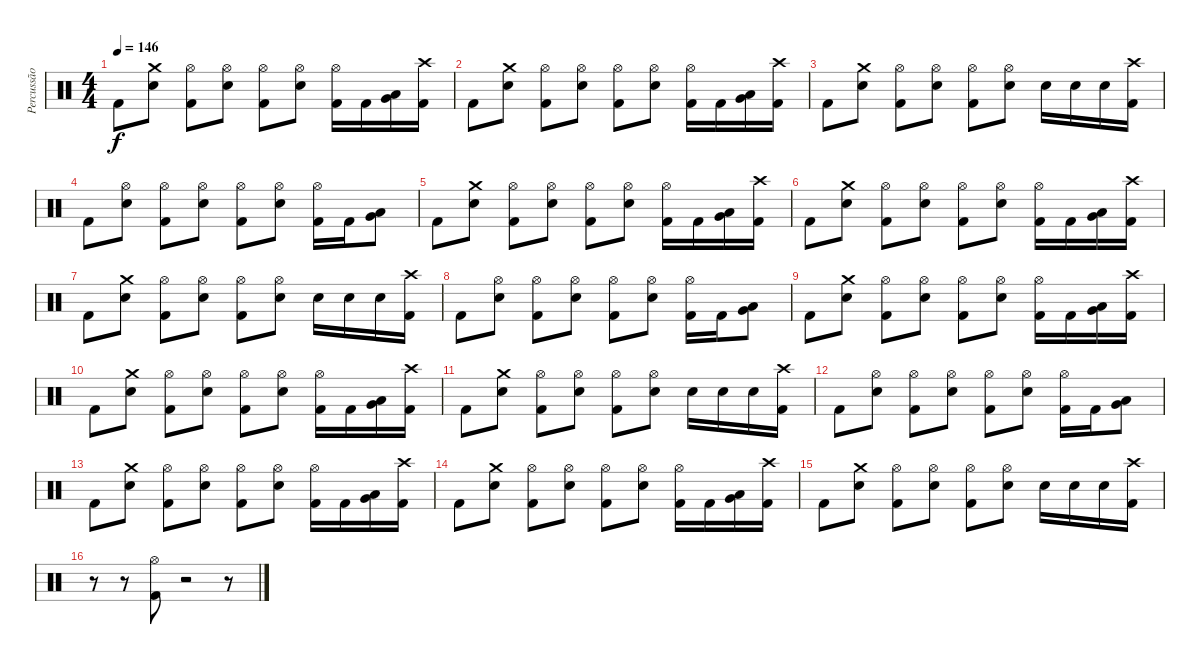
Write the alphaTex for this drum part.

\track ("Percussão" "Percussão") {instrument percussion}
\staff {score}
\articulation defaults
\ts (4 4)
\tempo 146
\clef neutral
\ks c "Kick (hit) 2".8{dy f}
("Crash medium (hit)" "Snare (hit) 2").8 ("Hi-Hat (open)" "Kick (hit) 2").8 ("Hi-Hat (open)" "Snare (hit) 2").8 ("Hi-Hat (open)" "Kick (hit) 2").8 ("Hi-Hat (open)" "Snare (hit) 2").8 ("Hi-Hat (open)" "Kick (hit) 2").16 "Kick (hit) 2".16 ("Very Low Tom (hit)" "Low Tom (hit)").16 ("Crash high (hit)" "Kick (hit) 2").16 |
"Kick (hit) 2".8 ("Crash medium (hit)" "Snare (hit) 2").8 ("Hi-Hat (open)" "Kick (hit) 2").8 ("Hi-Hat (open)" "Snare (hit) 2").8 ("Hi-Hat (open)" "Kick (hit) 2").8 ("Hi-Hat (open)" "Snare (hit) 2").8 ("Hi-Hat (open)" "Kick (hit) 2").16 "Kick (hit) 2".16 ("Very Low Tom (hit)" "Low Tom (hit)").16 ("Crash high (hit)" "Kick (hit) 2").16 |
"Kick (hit) 2".8 ("Crash medium (hit)" "Snare (hit) 2").8 ("Hi-Hat (open)" "Kick (hit) 2").8 ("Hi-Hat (open)" "Snare (hit) 2").8 ("Hi-Hat (open)" "Kick (hit) 2").8 ("Hi-Hat (open)" "Snare (hit) 2").8 "Snare (hit) 2".16 "Snare (hit) 2".16 "Snare (hit) 2".16 ("Crash high (hit)" "Kick (hit) 2").16 |
"Kick (hit) 2".8 ("Hi-Hat (open)" "Snare (hit) 2").8 ("Hi-Hat (open)" "Kick (hit) 2").8 ("Hi-Hat (open)" "Snare (hit) 2").8 ("Hi-Hat (open)" "Kick (hit) 2").8 ("Hi-Hat (open)" "Snare (hit) 2").8 ("Hi-Hat (open)" "Kick (hit) 2").16 "Kick (hit) 2".16 ("Very Low Tom (hit)" "Low Tom (hit)").8 |
"Kick (hit) 2".8 ("Crash medium (hit)" "Snare (hit) 2").8 ("Hi-Hat (open)" "Kick (hit) 2").8 ("Hi-Hat (open)" "Snare (hit) 2").8 ("Hi-Hat (open)" "Kick (hit) 2").8 ("Hi-Hat (open)" "Snare (hit) 2").8 ("Hi-Hat (open)" "Kick (hit) 2").16 "Kick (hit) 2".16 ("Very Low Tom (hit)" "Low Tom (hit)").16 ("Crash high (hit)" "Kick (hit) 2").16 |
"Kick (hit) 2".8 ("Crash medium (hit)" "Snare (hit) 2").8 ("Hi-Hat (open)" "Kick (hit) 2").8 ("Hi-Hat (open)" "Snare (hit) 2").8 ("Hi-Hat (open)" "Kick (hit) 2").8 ("Hi-Hat (open)" "Snare (hit) 2").8 ("Hi-Hat (open)" "Kick (hit) 2").16 "Kick (hit) 2".16 ("Very Low Tom (hit)" "Low Tom (hit)").16 ("Crash high (hit)" "Kick (hit) 2").16 |
"Kick (hit) 2".8 ("Crash medium (hit)" "Snare (hit) 2").8 ("Hi-Hat (open)" "Kick (hit) 2").8 ("Hi-Hat (open)" "Snare (hit) 2").8 ("Hi-Hat (open)" "Kick (hit) 2").8 ("Hi-Hat (open)" "Snare (hit) 2").8 "Snare (hit) 2".16 "Snare (hit) 2".16 "Snare (hit) 2".16 ("Crash high (hit)" "Kick (hit) 2").16 |
"Kick (hit) 2".8 ("Hi-Hat (open)" "Snare (hit) 2").8 ("Hi-Hat (open)" "Kick (hit) 2").8 ("Hi-Hat (open)" "Snare (hit) 2").8 ("Hi-Hat (open)" "Kick (hit) 2").8 ("Hi-Hat (open)" "Snare (hit) 2").8 ("Hi-Hat (open)" "Kick (hit) 2").16 "Kick (hit) 2".16 ("Very Low Tom (hit)" "Low Tom (hit)").8 |
"Kick (hit) 2".8 ("Crash medium (hit)" "Snare (hit) 2").8 ("Hi-Hat (open)" "Kick (hit) 2").8 ("Hi-Hat (open)" "Snare (hit) 2").8 ("Hi-Hat (open)" "Kick (hit) 2").8 ("Hi-Hat (open)" "Snare (hit) 2").8 ("Hi-Hat (open)" "Kick (hit) 2").16 "Kick (hit) 2".16 ("Very Low Tom (hit)" "Low Tom (hit)").16 ("Crash high (hit)" "Kick (hit) 2").16 |
"Kick (hit) 2".8 ("Crash medium (hit)" "Snare (hit) 2").8 ("Hi-Hat (open)" "Kick (hit) 2").8 ("Hi-Hat (open)" "Snare (hit) 2").8 ("Hi-Hat (open)" "Kick (hit) 2").8 ("Hi-Hat (open)" "Snare (hit) 2").8 ("Hi-Hat (open)" "Kick (hit) 2").16 "Kick (hit) 2".16 ("Very Low Tom (hit)" "Low Tom (hit)").16 ("Crash high (hit)" "Kick (hit) 2").16 |
"Kick (hit) 2".8 ("Crash medium (hit)" "Snare (hit) 2").8 ("Hi-Hat (open)" "Kick (hit) 2").8 ("Hi-Hat (open)" "Snare (hit) 2").8 ("Hi-Hat (open)" "Kick (hit) 2").8 ("Hi-Hat (open)" "Snare (hit) 2").8 "Snare (hit) 2".16 "Snare (hit) 2".16 "Snare (hit) 2".16 ("Crash high (hit)" "Kick (hit) 2").16 |
"Kick (hit) 2".8 ("Hi-Hat (open)" "Snare (hit) 2").8 ("Hi-Hat (open)" "Kick (hit) 2").8 ("Hi-Hat (open)" "Snare (hit) 2").8 ("Hi-Hat (open)" "Kick (hit) 2").8 ("Hi-Hat (open)" "Snare (hit) 2").8 ("Hi-Hat (open)" "Kick (hit) 2").16 "Kick (hit) 2".16 ("Very Low Tom (hit)" "Low Tom (hit)").8 |
"Kick (hit) 2".8 ("Crash medium (hit)" "Snare (hit) 2").8 ("Hi-Hat (open)" "Kick (hit) 2").8 ("Hi-Hat (open)" "Snare (hit) 2").8 ("Hi-Hat (open)" "Kick (hit) 2").8 ("Hi-Hat (open)" "Snare (hit) 2").8 ("Hi-Hat (open)" "Kick (hit) 2").16 "Kick (hit) 2".16 ("Very Low Tom (hit)" "Low Tom (hit)").16 ("Crash high (hit)" "Kick (hit) 2").16 |
"Kick (hit) 2".8 ("Crash medium (hit)" "Snare (hit) 2").8 ("Hi-Hat (open)" "Kick (hit) 2").8 ("Hi-Hat (open)" "Snare (hit) 2").8 ("Hi-Hat (open)" "Kick (hit) 2").8 ("Hi-Hat (open)" "Snare (hit) 2").8 ("Hi-Hat (open)" "Kick (hit) 2").16 "Kick (hit) 2".16 ("Very Low Tom (hit)" "Low Tom (hit)").16 ("Crash high (hit)" "Kick (hit) 2").16 |
"Kick (hit) 2".8 ("Crash medium (hit)" "Snare (hit) 2").8 ("Hi-Hat (open)" "Kick (hit) 2").8 ("Hi-Hat (open)" "Snare (hit) 2").8 ("Hi-Hat (open)" "Kick (hit) 2").8 ("Hi-Hat (open)" "Snare (hit) 2").8 "Snare (hit) 2".16 "Snare (hit) 2".16 "Snare (hit) 2".16 ("Crash high (hit)" "Kick (hit) 2").16 |
r.8 r.8 ("Hi-Hat (open)" "Kick (hit) 2").8 r.2 r.8
